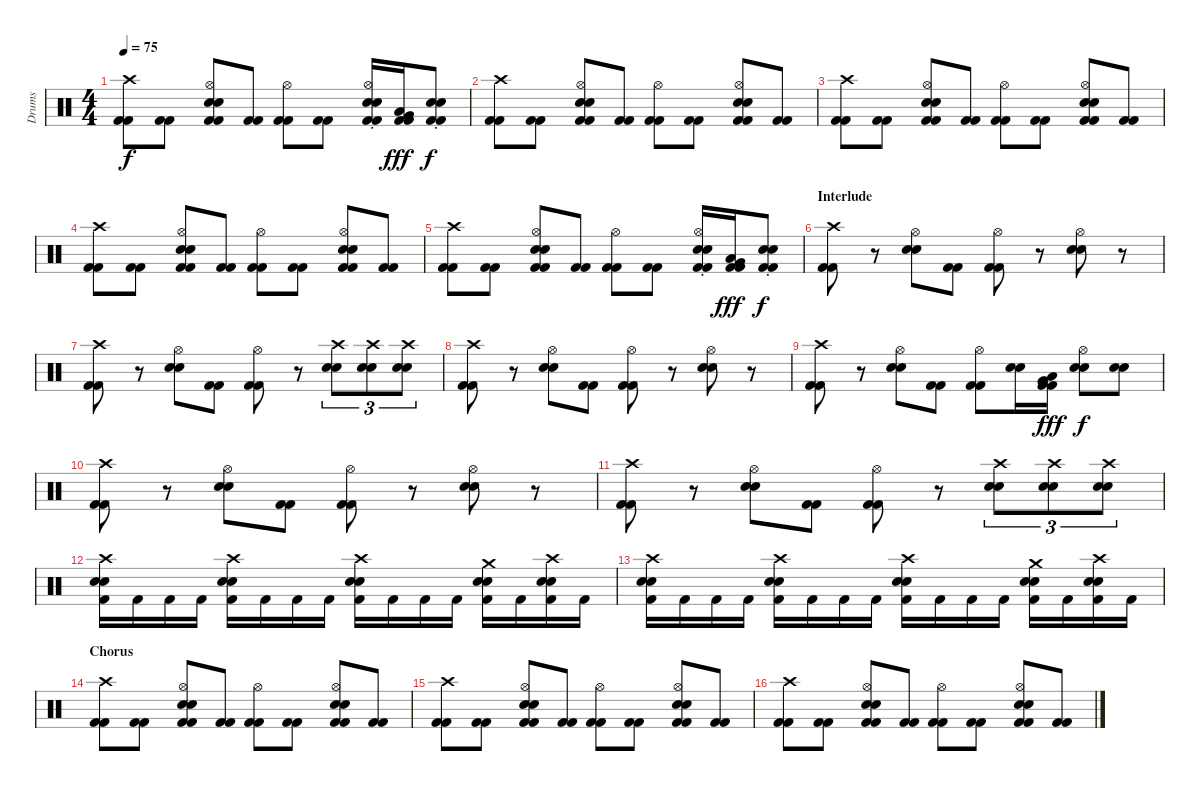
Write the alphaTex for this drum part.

\track ("Drums" "Drums") {instrument percussion}
\staff {score}
\articulation defaults
\ts (4 4)
\tempo 75
\clef neutral
\ks c
("Crash high (hit)" "Kick (hit) 2" "Kick (hit) 2").8{dy f} ("Kick (hit) 2" "Kick (hit) 2").8 ("Hi-Hat (open)" "Snare (hit) 2" "Snare (hit) 2" "Kick (hit) 2" "Kick (hit) 2").8 ("Kick (hit) 2" "Kick (hit) 2").8 ("Hi-Hat (open)" "Kick (hit) 2" "Kick (hit) 2").8 ("Kick (hit) 2" "Kick (hit) 2").8 ("Hi-Hat (open)"{st} "Snare (hit) 2"{st} "Snare (hit) 2"{st} "Kick (hit) 2"{st} "Kick (hit) 2"{st}).16 ("Low Floor Tom (hit)" "Very Low Tom (hit)" "Kick (hit) 2" "Kick (hit) 2").16{dy fff} ("Snare (hit) 2"{st} "Snare (hit) 2"{st} "Kick (hit) 2"{st} "Kick (hit) 2"{st}).8{dy f} |
("Crash high (hit)" "Kick (hit) 2" "Kick (hit) 2").8 ("Kick (hit) 2" "Kick (hit) 2").8 ("Hi-Hat (open)" "Snare (hit) 2" "Snare (hit) 2" "Kick (hit) 2" "Kick (hit) 2").8 ("Kick (hit) 2" "Kick (hit) 2").8 ("Hi-Hat (open)" "Kick (hit) 2" "Kick (hit) 2").8 ("Kick (hit) 2" "Kick (hit) 2").8 ("Hi-Hat (open)" "Snare (hit) 2" "Snare (hit) 2" "Kick (hit) 2" "Kick (hit) 2").8 ("Kick (hit) 2" "Kick (hit) 2").8 |
("Crash high (hit)" "Kick (hit) 2" "Kick (hit) 2").8 ("Kick (hit) 2" "Kick (hit) 2").8 ("Hi-Hat (open)" "Snare (hit) 2" "Snare (hit) 2" "Kick (hit) 2" "Kick (hit) 2").8 ("Kick (hit) 2" "Kick (hit) 2").8 ("Hi-Hat (open)" "Kick (hit) 2" "Kick (hit) 2").8 ("Kick (hit) 2" "Kick (hit) 2").8 ("Hi-Hat (open)" "Snare (hit) 2" "Snare (hit) 2" "Kick (hit) 2" "Kick (hit) 2").8 ("Kick (hit) 2" "Kick (hit) 2").8 |
("Crash high (hit)" "Kick (hit) 2" "Kick (hit) 2").8 ("Kick (hit) 2" "Kick (hit) 2").8 ("Hi-Hat (open)" "Snare (hit) 2" "Snare (hit) 2" "Kick (hit) 2" "Kick (hit) 2").8 ("Kick (hit) 2" "Kick (hit) 2").8 ("Hi-Hat (open)" "Kick (hit) 2" "Kick (hit) 2").8 ("Kick (hit) 2" "Kick (hit) 2").8 ("Hi-Hat (open)" "Snare (hit) 2" "Snare (hit) 2" "Kick (hit) 2" "Kick (hit) 2").8 ("Kick (hit) 2" "Kick (hit) 2").8 |
("Crash high (hit)" "Kick (hit) 2" "Kick (hit) 2").8 ("Kick (hit) 2" "Kick (hit) 2").8 ("Hi-Hat (open)" "Snare (hit) 2" "Snare (hit) 2" "Kick (hit) 2" "Kick (hit) 2").8 ("Kick (hit) 2" "Kick (hit) 2").8 ("Hi-Hat (open)" "Kick (hit) 2" "Kick (hit) 2").8 ("Kick (hit) 2" "Kick (hit) 2").8 ("Hi-Hat (open)"{st} "Snare (hit) 2"{st} "Snare (hit) 2"{st} "Kick (hit) 2"{st} "Kick (hit) 2"{st}).16 ("Low Floor Tom (hit)" "Very Low Tom (hit)" "Kick (hit) 2" "Kick (hit) 2").16{dy fff} ("Snare (hit) 2"{st} "Snare (hit) 2"{st} "Kick (hit) 2"{st} "Kick (hit) 2"{st}).8{dy f} |
\section ("" "Interlude")
("Crash high (hit)" "Kick (hit) 2" "Kick (hit) 2").8 r.8 ("Hi-Hat (open)" "Snare (hit) 2" "Snare (hit) 2").8 ("Kick (hit) 2" "Kick (hit) 2").8 ("Hi-Hat (open)" "Kick (hit) 2" "Kick (hit) 2").8 r.8 ("Hi-Hat (open)" "Snare (hit) 2" "Snare (hit) 2").8 r.8 |
("Crash high (hit)" "Kick (hit) 2" "Kick (hit) 2").8 r.8 ("Hi-Hat (open)" "Snare (hit) 2" "Snare (hit) 2").8 ("Kick (hit) 2" "Kick (hit) 2").8 ("Hi-Hat (open)" "Kick (hit) 2" "Kick (hit) 2").8 r.8 ("Crash high (hit)" "Snare (hit) 2" "Snare (hit) 2").8{tu (3 2)} ("Crash high (hit)" "Snare (hit) 2" "Snare (hit) 2").8{tu (3 2)} ("Crash high (hit)" "Snare (hit) 2" "Snare (hit) 2").8{tu (3 2)} |
("Crash high (hit)" "Kick (hit) 2" "Kick (hit) 2").8 r.8 ("Hi-Hat (open)" "Snare (hit) 2" "Snare (hit) 2").8 ("Kick (hit) 2" "Kick (hit) 2").8 ("Hi-Hat (open)" "Kick (hit) 2" "Kick (hit) 2").8 r.8 ("Hi-Hat (open)" "Snare (hit) 2" "Snare (hit) 2").8 r.8 |
("Crash high (hit)" "Kick (hit) 2" "Kick (hit) 2").8 r.8 ("Hi-Hat (open)" "Snare (hit) 2" "Snare (hit) 2").8 ("Kick (hit) 2" "Kick (hit) 2").8 ("Hi-Hat (open)" "Kick (hit) 2" "Kick (hit) 2").8 ("Snare (hit) 2" "Snare (hit) 2").16 ("Very Low Tom (hit)" "Low Floor Tom (hit)" "Kick (hit) 2" "Kick (hit) 2").16{dy fff} ("Hi-Hat (open)" "Snare (hit) 2" "Snare (hit) 2").8{dy f} ("Snare (hit) 2" "Snare (hit) 2").8 |
("Crash high (hit)" "Kick (hit) 2" "Kick (hit) 2").8 r.8 ("Hi-Hat (open)" "Snare (hit) 2" "Snare (hit) 2").8 ("Kick (hit) 2" "Kick (hit) 2").8 ("Hi-Hat (open)" "Kick (hit) 2" "Kick (hit) 2").8 r.8 ("Hi-Hat (open)" "Snare (hit) 2" "Snare (hit) 2").8 r.8 |
("Crash high (hit)" "Kick (hit) 2" "Kick (hit) 2").8 r.8 ("Hi-Hat (open)" "Snare (hit) 2" "Snare (hit) 2").8 ("Kick (hit) 2" "Kick (hit) 2").8 ("Hi-Hat (open)" "Kick (hit) 2" "Kick (hit) 2").8 r.8 ("Crash high (hit)" "Snare (hit) 2" "Snare (hit) 2").8{tu (3 2)} ("Crash high (hit)" "Snare (hit) 2" "Snare (hit) 2").8{tu (3 2)} ("Crash high (hit)" "Snare (hit) 2" "Snare (hit) 2").8{tu (3 2)} |
("Crash high (hit)" "Snare (hit) 2" "Snare (hit) 2" "Kick (hit) 2").16 "Kick (hit) 2".16 "Kick (hit) 2".16 "Kick (hit) 2".16 ("Crash high (hit)" "Snare (hit) 2" "Snare (hit) 2" "Kick (hit) 2").16 "Kick (hit) 2".16 "Kick (hit) 2".16 "Kick (hit) 2".16 ("Crash high (hit)" "Snare (hit) 2" "Snare (hit) 2" "Kick (hit) 2").16 "Kick (hit) 2".16 "Kick (hit) 2".16 "Kick (hit) 2".16 ("Crash medium (hit)" "Snare (hit) 2" "Snare (hit) 2" "Kick (hit) 2").16 "Kick (hit) 2".16 ("Crash high (hit)" "Snare (hit) 2" "Snare (hit) 2" "Kick (hit) 2").16 "Kick (hit) 2".16 |
("Crash high (hit)" "Snare (hit) 2" "Snare (hit) 2" "Kick (hit) 2").16 "Kick (hit) 2".16 "Kick (hit) 2".16 "Kick (hit) 2".16 ("Crash high (hit)" "Snare (hit) 2" "Snare (hit) 2" "Kick (hit) 2").16 "Kick (hit) 2".16 "Kick (hit) 2".16 "Kick (hit) 2".16 ("Crash high (hit)" "Snare (hit) 2" "Snare (hit) 2" "Kick (hit) 2").16 "Kick (hit) 2".16 "Kick (hit) 2".16 "Kick (hit) 2".16 ("Crash medium (hit)" "Snare (hit) 2" "Snare (hit) 2" "Kick (hit) 2").16 "Kick (hit) 2".16 ("Crash high (hit)" "Snare (hit) 2" "Snare (hit) 2" "Kick (hit) 2").16 "Kick (hit) 2".16 |
\section ("" "Chorus")
("Crash high (hit)" "Kick (hit) 2" "Kick (hit) 2").8 ("Kick (hit) 2" "Kick (hit) 2").8 ("Hi-Hat (open)" "Snare (hit) 2" "Snare (hit) 2" "Kick (hit) 2" "Kick (hit) 2").8 ("Kick (hit) 2" "Kick (hit) 2").8 ("Hi-Hat (open)" "Kick (hit) 2" "Kick (hit) 2").8 ("Kick (hit) 2" "Kick (hit) 2").8 ("Hi-Hat (open)" "Snare (hit) 2" "Snare (hit) 2" "Kick (hit) 2" "Kick (hit) 2").8 ("Kick (hit) 2" "Kick (hit) 2").8 |
("Crash high (hit)" "Kick (hit) 2" "Kick (hit) 2").8 ("Kick (hit) 2" "Kick (hit) 2").8 ("Hi-Hat (open)" "Snare (hit) 2" "Snare (hit) 2" "Kick (hit) 2" "Kick (hit) 2").8 ("Kick (hit) 2" "Kick (hit) 2").8 ("Hi-Hat (open)" "Kick (hit) 2" "Kick (hit) 2").8 ("Kick (hit) 2" "Kick (hit) 2").8 ("Hi-Hat (open)" "Snare (hit) 2" "Snare (hit) 2" "Kick (hit) 2" "Kick (hit) 2").8 ("Kick (hit) 2" "Kick (hit) 2").8 |
("Crash high (hit)" "Kick (hit) 2" "Kick (hit) 2").8 ("Kick (hit) 2" "Kick (hit) 2").8 ("Hi-Hat (open)" "Snare (hit) 2" "Snare (hit) 2" "Kick (hit) 2" "Kick (hit) 2").8 ("Kick (hit) 2" "Kick (hit) 2").8 ("Hi-Hat (open)" "Kick (hit) 2" "Kick (hit) 2").8 ("Kick (hit) 2" "Kick (hit) 2").8 ("Hi-Hat (open)" "Snare (hit) 2" "Snare (hit) 2" "Kick (hit) 2" "Kick (hit) 2").8 ("Kick (hit) 2" "Kick (hit) 2").8
